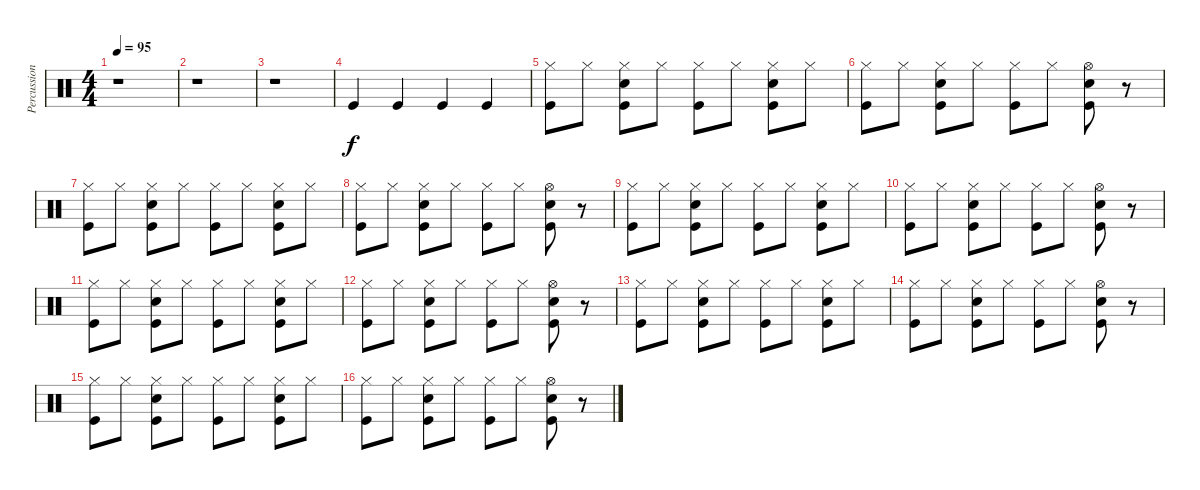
\track ("Percussion" "Percussion") {instrument percussion}
\staff {score}
\articulation defaults
\ts (4 4)
\tempo 95
\clef neutral
\ks c
r.1{dy f} |
r.1 |
r.1 |
"Kick (hit)".4 "Kick (hit)".4 "Kick (hit)".4 "Kick (hit)".4 |
("Hi-Hat (closed)" "Kick (hit)").8 "Hi-Hat (closed)".8 ("Hi-Hat (closed)" "Electric Snare (hit)" "Kick (hit)").8 "Hi-Hat (closed)".8 ("Hi-Hat (closed)" "Kick (hit)").8 "Hi-Hat (closed)".8 ("Hi-Hat (closed)" "Electric Snare (hit)" "Kick (hit)").8 "Hi-Hat (closed)".8 |
("Hi-Hat (closed)" "Kick (hit)").8 "Hi-Hat (closed)".8 ("Hi-Hat (closed)" "Electric Snare (hit)" "Kick (hit)").8 "Hi-Hat (closed)".8 ("Hi-Hat (closed)" "Kick (hit)").8 "Hi-Hat (closed)".8 ("Hi-Hat (open)" "Electric Snare (hit)" "Kick (hit)").8 r.8 |
("Hi-Hat (closed)" "Kick (hit)").8 "Hi-Hat (closed)".8 ("Hi-Hat (closed)" "Electric Snare (hit)" "Kick (hit)").8 "Hi-Hat (closed)".8 ("Hi-Hat (closed)" "Kick (hit)").8 "Hi-Hat (closed)".8 ("Hi-Hat (closed)" "Electric Snare (hit)" "Kick (hit)").8 "Hi-Hat (closed)".8 |
("Hi-Hat (closed)" "Kick (hit)").8 "Hi-Hat (closed)".8 ("Hi-Hat (closed)" "Electric Snare (hit)" "Kick (hit)").8 "Hi-Hat (closed)".8 ("Hi-Hat (closed)" "Kick (hit)").8 "Hi-Hat (closed)".8 ("Hi-Hat (open)" "Electric Snare (hit)" "Kick (hit)").8 r.8 |
("Hi-Hat (closed)" "Kick (hit)").8 "Hi-Hat (closed)".8 ("Hi-Hat (closed)" "Electric Snare (hit)" "Kick (hit)").8 "Hi-Hat (closed)".8 ("Hi-Hat (closed)" "Kick (hit)").8 "Hi-Hat (closed)".8 ("Hi-Hat (closed)" "Electric Snare (hit)" "Kick (hit)").8 "Hi-Hat (closed)".8 |
("Hi-Hat (closed)" "Kick (hit)").8 "Hi-Hat (closed)".8 ("Hi-Hat (closed)" "Electric Snare (hit)" "Kick (hit)").8 "Hi-Hat (closed)".8 ("Hi-Hat (closed)" "Kick (hit)").8 "Hi-Hat (closed)".8 ("Hi-Hat (open)" "Electric Snare (hit)" "Kick (hit)").8 r.8 |
("Hi-Hat (closed)" "Kick (hit)").8 "Hi-Hat (closed)".8 ("Hi-Hat (closed)" "Electric Snare (hit)" "Kick (hit)").8 "Hi-Hat (closed)".8 ("Hi-Hat (closed)" "Kick (hit)").8 "Hi-Hat (closed)".8 ("Hi-Hat (closed)" "Electric Snare (hit)" "Kick (hit)").8 "Hi-Hat (closed)".8 |
("Hi-Hat (closed)" "Kick (hit)").8 "Hi-Hat (closed)".8 ("Hi-Hat (closed)" "Electric Snare (hit)" "Kick (hit)").8 "Hi-Hat (closed)".8 ("Hi-Hat (closed)" "Kick (hit)").8 "Hi-Hat (closed)".8 ("Hi-Hat (open)" "Electric Snare (hit)" "Kick (hit)").8 r.8 |
("Hi-Hat (closed)" "Kick (hit)").8 "Hi-Hat (closed)".8 ("Hi-Hat (closed)" "Electric Snare (hit)" "Kick (hit)").8 "Hi-Hat (closed)".8 ("Hi-Hat (closed)" "Kick (hit)").8 "Hi-Hat (closed)".8 ("Hi-Hat (closed)" "Electric Snare (hit)" "Kick (hit)").8 "Hi-Hat (closed)".8 |
("Hi-Hat (closed)" "Kick (hit)").8 "Hi-Hat (closed)".8 ("Hi-Hat (closed)" "Electric Snare (hit)" "Kick (hit)").8 "Hi-Hat (closed)".8 ("Hi-Hat (closed)" "Kick (hit)").8 "Hi-Hat (closed)".8 ("Hi-Hat (open)" "Electric Snare (hit)" "Kick (hit)").8 r.8 |
("Hi-Hat (closed)" "Kick (hit)").8 "Hi-Hat (closed)".8 ("Hi-Hat (closed)" "Electric Snare (hit)" "Kick (hit)").8 "Hi-Hat (closed)".8 ("Hi-Hat (closed)" "Kick (hit)").8 "Hi-Hat (closed)".8 ("Hi-Hat (closed)" "Electric Snare (hit)" "Kick (hit)").8 "Hi-Hat (closed)".8 |
("Hi-Hat (closed)" "Kick (hit)").8 "Hi-Hat (closed)".8 ("Hi-Hat (closed)" "Electric Snare (hit)" "Kick (hit)").8 "Hi-Hat (closed)".8 ("Hi-Hat (closed)" "Kick (hit)").8 "Hi-Hat (closed)".8 ("Hi-Hat (open)" "Electric Snare (hit)" "Kick (hit)").8 r.8
